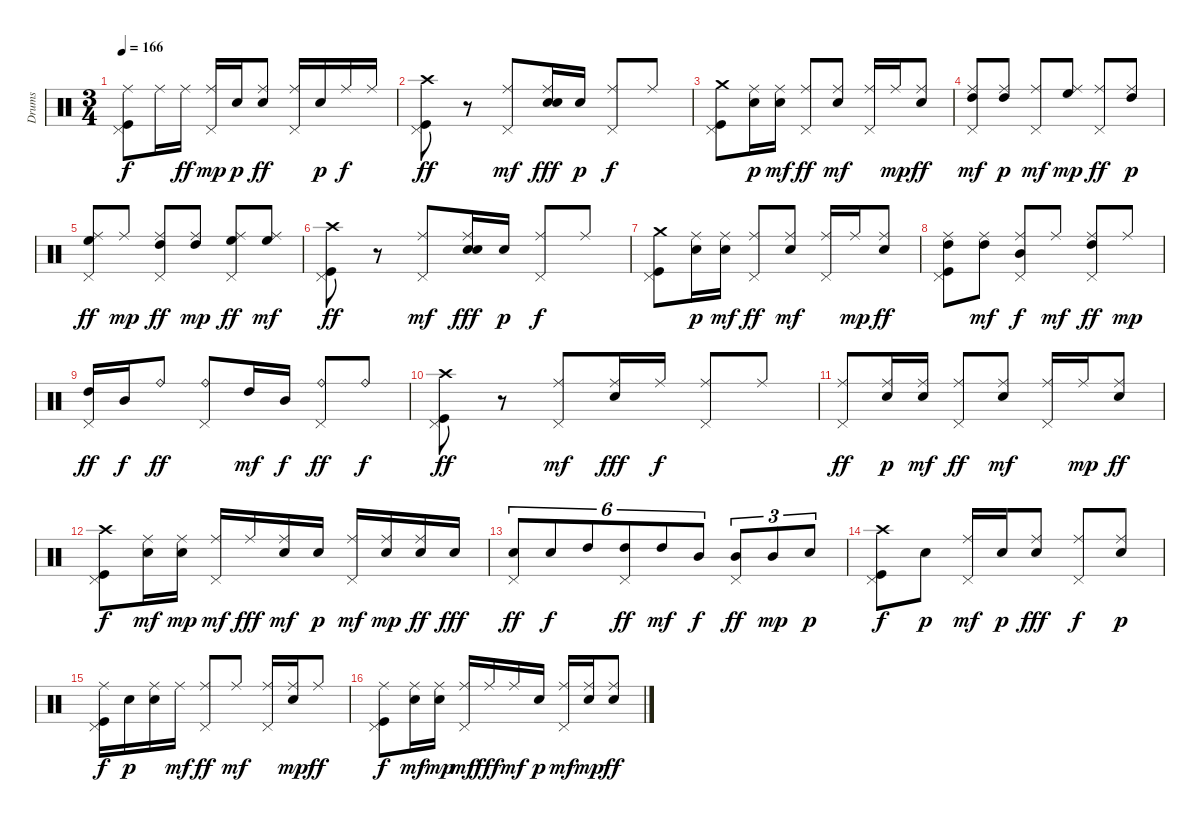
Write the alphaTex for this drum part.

\track ("Drums" "Drums") {instrument percussion}
\staff {score}
\articulation defaults
\ts (3 4)
\tempo 166
\clef neutral
\ks c
("Kick (hit)" "Pedal Hi-Hat (hit)" "Ride (middle)").8{dy f} "Ride (middle)".16 "Ride (middle)".16{dy ff} ("Pedal Hi-Hat (hit)" "Ride (middle)").16{dy mp} "Snare (hit) 2".16{dy p} ("Electric Snare (hit)" "Ride (middle)").8{dy ff} ("Pedal Hi-Hat (hit)" "Ride (middle)").16 "Snare (hit) 2".16{dy p} "Ride (middle)".16{dy f} "Ride (middle)".16 |
("Kick (hit)" "Pedal Hi-Hat (hit)" "Crash high (hit)").8{dy ff} r.8 ("Pedal Hi-Hat (hit)" "Ride (middle)").8{dy mf} ("Snare (hit) 2" "Electric Snare (hit)" "Ride (middle)").16{dy fff} "Snare (hit) 2".16{dy p} ("Pedal Hi-Hat (hit)" "Ride (middle)").8{dy f} "Ride (middle)".8 |
("Kick (hit)" "Pedal Hi-Hat (hit)" "Crash medium (hit)").8 ("Snare (hit) 2" "Ride (middle)").16{dy p} ("Snare (hit) 2" "Ride (middle)").16{dy mf} ("Pedal Hi-Hat (hit)" "Ride (middle)").8{dy ff} ("Electric Snare (hit)" "Ride (middle)").8{dy mf} ("Pedal Hi-Hat (hit)" "Ride (middle)").16 "Ride (middle)".16{dy mp} ("Snare (hit) 2" "Ride (middle)").8{dy ff} |
("High Tom (hit)" "Pedal Hi-Hat (hit)" "Ride (middle)").8{dy mf} ("High Tom (hit)" "Ride (middle)").8{dy p} ("Pedal Hi-Hat (hit)" "Ride (middle)").8{dy mf} ("High Floor Tom (hit)" "Ride (middle)").8{dy mp} ("Pedal Hi-Hat (hit)" "Ride (middle)").8{dy ff} ("High Tom (hit)" "Ride (middle)").8{dy p} |
("High Floor Tom (hit)" "Pedal Hi-Hat (hit)" "Ride (middle)").8{dy ff} "Ride (middle)".8{dy mp} ("High Tom (hit)" "Pedal Hi-Hat (hit)" "Ride (middle)").8{dy ff} ("High Tom (hit)" "Ride (middle)").8{dy mp} ("High Floor Tom (hit)" "Pedal Hi-Hat (hit)" "Ride (middle)").8{dy ff} ("High Floor Tom (hit)" "Ride (middle)").8{dy mf} |
("Kick (hit)" "Pedal Hi-Hat (hit)" "Crash high (hit)").8{dy ff} r.8 ("Pedal Hi-Hat (hit)" "Ride (middle)").8{dy mf} ("Snare (hit) 2" "Electric Snare (hit)" "Ride (middle)").16{dy fff} "Snare (hit) 2".16{dy p} ("Pedal Hi-Hat (hit)" "Ride (middle)").8{dy f} "Ride (middle)".8 |
("Kick (hit)" "Pedal Hi-Hat (hit)" "Crash medium (hit)").8 ("Snare (hit) 2" "Ride (middle)").16{dy p} ("Snare (hit) 2" "Ride (middle)").16{dy mf} ("Pedal Hi-Hat (hit)" "Ride (middle)").8{dy ff} ("Electric Snare (hit)" "Ride (middle)").8{dy mf} ("Pedal Hi-Hat (hit)" "Ride (middle)").16 "Ride (middle)".16{dy mp} ("Snare (hit) 2" "Ride (middle)").8{dy ff} |
("Kick (hit)" "High Tom (hit)" "Pedal Hi-Hat (hit)" "Ride (middle)").8 ("High Tom (hit)" "Ride (middle)").8{dy mf} ("Mid Tom (hit)" "Pedal Hi-Hat (hit)" "Ride (middle)").8{dy f} "Ride (middle)".8{dy mf} ("High Tom (hit)" "Pedal Hi-Hat (hit)" "Ride (middle)").8{dy ff} "Ride (middle)".8{dy mp} |
("High Tom (hit)" "Pedal Hi-Hat (hit)").16{dy ff} "Mid Tom (hit)".16{dy f} "Ride (bell)".8{dy ff} ("Pedal Hi-Hat (hit)" "Ride (bell)").8 "High Tom (hit)".16{dy mf} "Mid Tom (hit)".16{dy f} ("Pedal Hi-Hat (hit)" "Ride (bell)").8{dy ff} "Ride (bell)".8{dy f} |
("Kick (hit)" "Pedal Hi-Hat (hit)" "Crash high (hit)").8{dy ff} r.8 ("Pedal Hi-Hat (hit)" "Ride (middle)").8{dy mf} ("Electric Snare (hit)" "Ride (middle)").16{dy fff} "Ride (middle)".16{dy f} ("Pedal Hi-Hat (hit)" "Ride (middle)").8 "Ride (middle)".8 |
("Pedal Hi-Hat (hit)" "Ride (middle)").8{dy ff} ("Snare (hit) 2" "Ride (middle)").16{dy p} ("Snare (hit) 2" "Ride (middle)").16{dy mf} ("Pedal Hi-Hat (hit)" "Ride (middle)").8{dy ff} ("Electric Snare (hit)" "Ride (middle)").8{dy mf} ("Pedal Hi-Hat (hit)" "Ride (middle)").16 "Ride (middle)".16{dy mp} ("Snare (hit) 2" "Ride (middle)").8{dy ff} |
("Kick (hit)" "Pedal Hi-Hat (hit)" "Crash high (hit)").8{dy f} ("Snare (hit) 2" "Ride (middle)").16{dy mf} ("Snare (hit) 2" "Ride (middle)").16{dy mp} ("Pedal Hi-Hat (hit)" "Ride (middle)").16{dy mf} "Ride (middle)".16{dy fff} ("Electric Snare (hit)" "Ride (middle)").16{dy mf} "Snare (hit) 2".16{dy p} ("Pedal Hi-Hat (hit)" "Ride (middle)").16{dy mf} ("Snare (hit) 2" "Ride (middle)").16{dy mp} ("Snare (hit) 2" "Ride (middle)").16{dy ff} "Electric Snare (hit)".16{dy fff} |
("Electric Snare (hit)" "Pedal Hi-Hat (hit)").8{tu (6 4) dy ff} "Electric Snare (hit)".8{tu (6 4) dy f} "High Tom (hit)".8{tu (6 4)} ("High Tom (hit)" "Pedal Hi-Hat (hit)").8{tu (6 4) dy ff} "High Tom (hit)".8{tu (6 4) dy mf} "Mid Tom (hit)".8{tu (6 4) dy f} ("Mid Tom (hit)" "Pedal Hi-Hat (hit)").8{tu (3 2) dy ff} "Mid Tom (hit)".8{tu (3 2) dy mp} "Snare (hit) 2".8{tu (3 2) dy p} |
("Kick (hit)" "Pedal Hi-Hat (hit)" "Crash high (hit)").8{dy f} "Snare (hit) 2".8{dy p} ("Pedal Hi-Hat (hit)" "Ride (middle)").16{dy mf} "Snare (hit) 2".16{dy p} ("Electric Snare (hit)" "Ride (middle)").8{dy fff} ("Pedal Hi-Hat (hit)" "Ride (middle)").8{dy f} ("Snare (hit) 2" "Ride (middle)").8{dy p} |
("Kick (hit)" "Pedal Hi-Hat (hit)" "Ride (middle)").16{dy f} "Snare (hit) 2".16{dy p} ("Snare (hit) 2" "Ride (middle)").16 "Ride (middle)".16{dy mf} ("Pedal Hi-Hat (hit)" "Ride (middle)").8{dy ff} "Ride (middle)".8{dy mf} ("Pedal Hi-Hat (hit)" "Ride (middle)").16 ("Snare (hit) 2" "Ride (middle)").16{dy mp} "Ride (middle)".8{dy ff} |
("Kick (hit)" "Pedal Hi-Hat (hit)" "Ride (middle)").8{dy f} ("Snare (hit) 2" "Ride (middle)").16{dy mf} ("Snare (hit) 2" "Ride (middle)").16{dy mp} ("Pedal Hi-Hat (hit)" "Ride (middle)").16{dy mf} "Ride (middle)".16{dy fff} "Ride (middle)".16{dy mf} "Snare (hit) 2".16{dy p} ("Pedal Hi-Hat (hit)" "Ride (middle)").16{dy mf} ("Snare (hit) 2" "Ride (middle)").16{dy mp} ("Snare (hit) 2" "Ride (middle)").8{dy ff}
